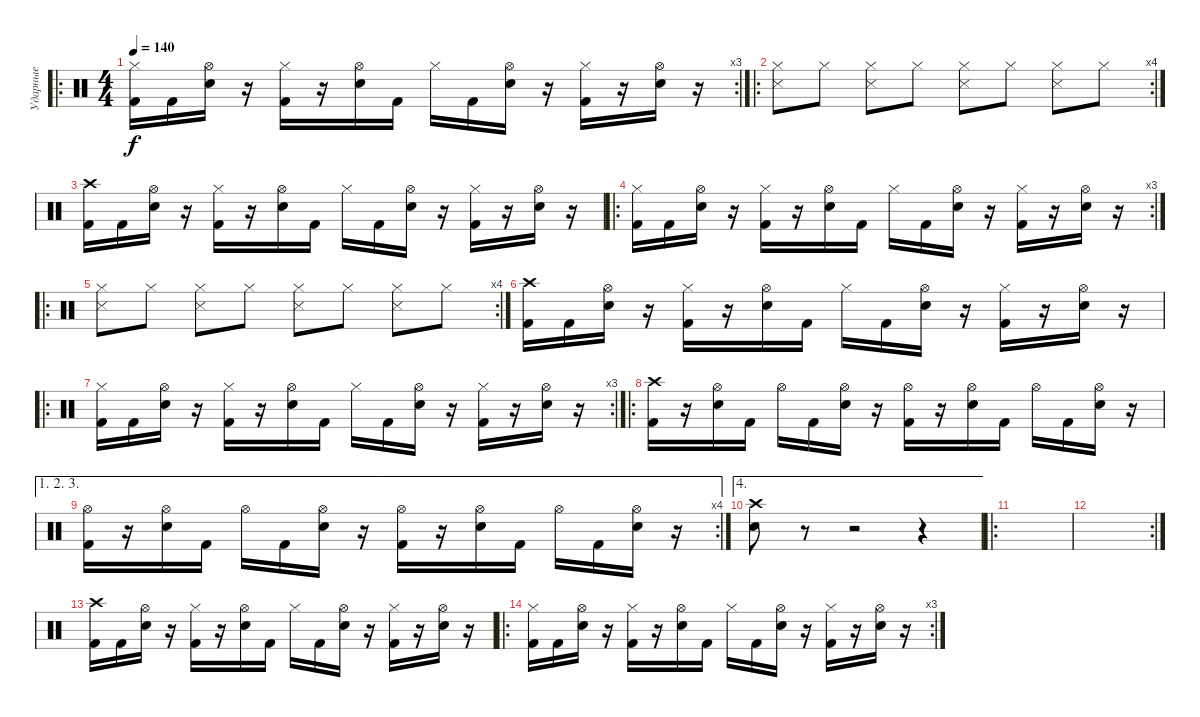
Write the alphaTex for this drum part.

\track ("Ударные" "Ударные") {instrument percussion}
\staff {score}
\articulation defaults
\ro
\rc 3
\ts (4 4)
\tempo 140
\clef neutral
\ks c
("Hi-Hat (closed)" "Kick (hit) 2").16{dy f} "Kick (hit) 2".16 ("Hi-Hat (open)" "Electric Snare (hit)").16 r.16 ("Hi-Hat (closed)" "Kick (hit) 2").16 r.16 ("Hi-Hat (open)" "Electric Snare (hit)").16 "Kick (hit) 2".16 "Hi-Hat (closed)".16 "Kick (hit) 2".16 ("Hi-Hat (open)" "Electric Snare (hit)").16 r.16 ("Hi-Hat (closed)" "Kick (hit) 2").16 r.16 ("Hi-Hat (open)" "Electric Snare (hit)").16 r.16 |
\ro
\rc 4
("Hi-Hat (closed)" "Snare (side stick) 3").8 "Hi-Hat (closed)".8 ("Hi-Hat (closed)" "Snare (side stick) 3").8 "Hi-Hat (closed)".8 ("Hi-Hat (closed)" "Snare (side stick) 3").8 "Hi-Hat (closed)".8 ("Hi-Hat (closed)" "Snare (side stick) 3").8 "Hi-Hat (closed)".8 |
("Crash high (hit)" "Kick (hit) 2").16 "Kick (hit) 2".16 ("Hi-Hat (open)" "Electric Snare (hit)").16 r.16 ("Hi-Hat (closed)" "Kick (hit) 2").16 r.16 ("Hi-Hat (open)" "Electric Snare (hit)").16 "Kick (hit) 2".16 "Hi-Hat (closed)".16 "Kick (hit) 2".16 ("Hi-Hat (open)" "Electric Snare (hit)").16 r.16 ("Hi-Hat (closed)" "Kick (hit) 2").16 r.16 ("Hi-Hat (open)" "Electric Snare (hit)").16 r.16 |
\ro
\rc 3
("Hi-Hat (closed)" "Kick (hit) 2").16 "Kick (hit) 2".16 ("Hi-Hat (open)" "Electric Snare (hit)").16 r.16 ("Hi-Hat (closed)" "Kick (hit) 2").16 r.16 ("Hi-Hat (open)" "Electric Snare (hit)").16 "Kick (hit) 2".16 "Hi-Hat (closed)".16 "Kick (hit) 2".16 ("Hi-Hat (open)" "Electric Snare (hit)").16 r.16 ("Hi-Hat (closed)" "Kick (hit) 2").16 r.16 ("Hi-Hat (open)" "Electric Snare (hit)").16 r.16 |
\ro
\rc 4
("Hi-Hat (closed)" "Snare (side stick) 3").8 "Hi-Hat (closed)".8 ("Hi-Hat (closed)" "Snare (side stick) 3").8 "Hi-Hat (closed)".8 ("Hi-Hat (closed)" "Snare (side stick) 3").8 "Hi-Hat (closed)".8 ("Hi-Hat (closed)" "Snare (side stick) 3").8 "Hi-Hat (closed)".8 |
("Crash high (hit)" "Kick (hit) 2").16 "Kick (hit) 2".16 ("Hi-Hat (open)" "Electric Snare (hit)").16 r.16 ("Hi-Hat (closed)" "Kick (hit) 2").16 r.16 ("Hi-Hat (open)" "Electric Snare (hit)").16 "Kick (hit) 2".16 "Hi-Hat (closed)".16 "Kick (hit) 2".16 ("Hi-Hat (open)" "Electric Snare (hit)").16 r.16 ("Hi-Hat (closed)" "Kick (hit) 2").16 r.16 ("Hi-Hat (open)" "Electric Snare (hit)").16 r.16 |
\ro
\rc 3
("Hi-Hat (closed)" "Kick (hit) 2").16 "Kick (hit) 2".16 ("Hi-Hat (open)" "Electric Snare (hit)").16 r.16 ("Hi-Hat (closed)" "Kick (hit) 2").16 r.16 ("Hi-Hat (open)" "Electric Snare (hit)").16 "Kick (hit) 2".16 "Hi-Hat (closed)".16 "Kick (hit) 2".16 ("Hi-Hat (open)" "Electric Snare (hit)").16 r.16 ("Hi-Hat (closed)" "Kick (hit) 2").16 r.16 ("Hi-Hat (open)" "Electric Snare (hit)").16 r.16 |
\ro
("Crash high (hit)" "Kick (hit) 2").16 r.16 ("Hi-Hat (open)" "Electric Snare (hit)").16 "Kick (hit) 2".16 "Hi-Hat (open)".16 "Kick (hit) 2".16 ("Hi-Hat (open)" "Electric Snare (hit)").16 r.16 ("Hi-Hat (open)" "Kick (hit) 2").16 r.16 ("Hi-Hat (open)" "Electric Snare (hit)").16 "Kick (hit) 2".16 "Hi-Hat (open)".16 "Kick (hit) 2".16 ("Hi-Hat (open)" "Electric Snare (hit)").16 r.16 |
\ae (1 2 3)
\rc 4
("Hi-Hat (open)" "Kick (hit) 2").16 r.16 ("Hi-Hat (open)" "Electric Snare (hit)").16 "Kick (hit) 2".16 "Hi-Hat (open)".16 "Kick (hit) 2".16 ("Hi-Hat (open)" "Electric Snare (hit)").16 r.16 ("Hi-Hat (open)" "Kick (hit) 2").16 r.16 ("Hi-Hat (open)" "Electric Snare (hit)").16 "Kick (hit) 2".16 "Hi-Hat (open)".16 "Kick (hit) 2".16 ("Hi-Hat (open)" "Electric Snare (hit)").16 r.16 |
\ae 4
("Crash high (hit)" "Electric Snare (hit)").8 r.8 r.2 r.4 |
\ro
|
\rc 2
|
("Crash high (hit)" "Kick (hit) 2").16 "Kick (hit) 2".16 ("Hi-Hat (open)" "Electric Snare (hit)").16 r.16 ("Hi-Hat (closed)" "Kick (hit) 2").16 r.16 ("Hi-Hat (open)" "Electric Snare (hit)").16 "Kick (hit) 2".16 "Hi-Hat (closed)".16 "Kick (hit) 2".16 ("Hi-Hat (open)" "Electric Snare (hit)").16 r.16 ("Hi-Hat (closed)" "Kick (hit) 2").16 r.16 ("Hi-Hat (open)" "Electric Snare (hit)").16 r.16 |
\ro
\rc 3
("Hi-Hat (closed)" "Kick (hit) 2").16 "Kick (hit) 2".16 ("Hi-Hat (open)" "Electric Snare (hit)").16 r.16 ("Hi-Hat (closed)" "Kick (hit) 2").16 r.16 ("Hi-Hat (open)" "Electric Snare (hit)").16 "Kick (hit) 2".16 "Hi-Hat (closed)".16 "Kick (hit) 2".16 ("Hi-Hat (open)" "Electric Snare (hit)").16 r.16 ("Hi-Hat (closed)" "Kick (hit) 2").16 r.16 ("Hi-Hat (open)" "Electric Snare (hit)").16 r.16
